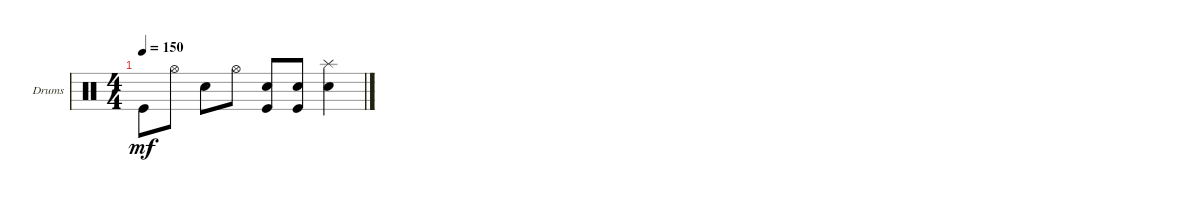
\bracketExtendMode groupsimilarinstruments
\firstSystemTrackNameOrientation horizontal
\otherSystemsTrackNameOrientation horizontal
\track ("Percussion" "Drums") {instrument percussion}
\staff {score}
\articulation defaults
\ts (4 4)
\tempo 150
\clef neutral
\ks c "Kick (hit)".8{dy mf} "Hi-Hat (open)".8 "Snare (hit) 2".8 "Hi-Hat (open)".8
("Kick (hit)" "Snare (hit) 2").8 ("Snare (hit) 2" "Kick (hit)").8 ("Snare (hit) 2" "Splash (hit)").4
